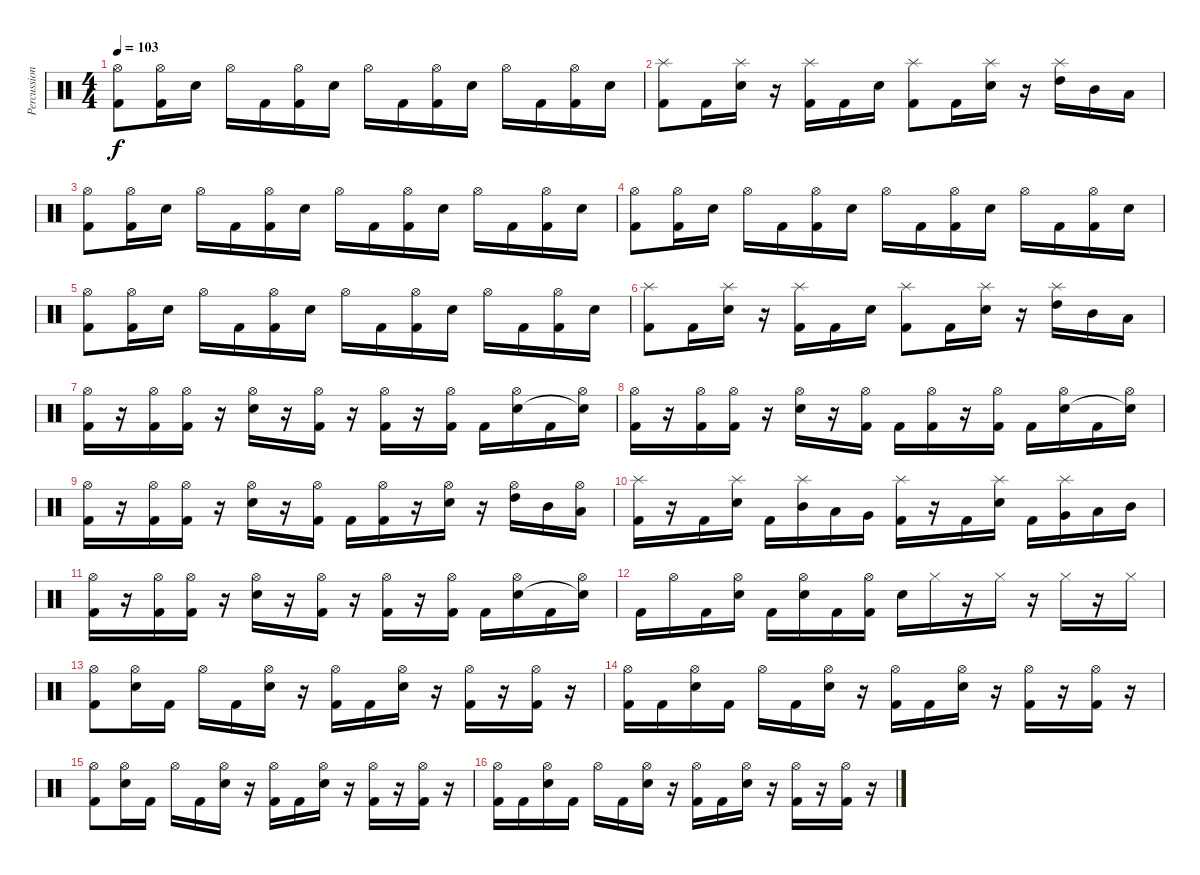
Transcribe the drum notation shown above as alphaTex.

\track ("Percussion" "Percussion") {instrument percussion}
\staff {score}
\articulation defaults
\ts (4 4)
\tempo 103
\clef neutral
\ks c
("Hi-Hat (open)" "Kick (hit) 2").8{dy f} ("Hi-Hat (open)" "Kick (hit) 2").16 "Electric Snare (hit)".16 "Hi-Hat (open)".16 "Kick (hit) 2".16 ("Hi-Hat (open)" "Kick (hit) 2").16 "Electric Snare (hit)".16 "Hi-Hat (open)".16 "Kick (hit) 2".16 ("Hi-Hat (open)" "Kick (hit) 2").16 "Electric Snare (hit)".16 "Hi-Hat (open)".16 "Kick (hit) 2".16 ("Hi-Hat (open)" "Kick (hit) 2").16 "Electric Snare (hit)".16 |
("Splash (hit)" "Kick (hit) 2").8 "Kick (hit) 2".16 ("Splash (hit)" "Electric Snare (hit)").16 r.16 ("Splash (hit)" "Kick (hit) 2").16 "Kick (hit) 2".16 "Electric Snare (hit)".16 ("Splash (hit)" "Kick (hit) 2").8 "Kick (hit) 2".16 ("Splash (hit)" "Electric Snare (hit)").16 r.16 ("Splash (hit)" "High Tom (hit)").16 "Mid Tom (hit)".16 "Low Tom (hit)".16 |
("Hi-Hat (open)" "Kick (hit) 2").8 ("Hi-Hat (open)" "Kick (hit) 2").16 "Electric Snare (hit)".16 "Hi-Hat (open)".16 "Kick (hit) 2".16 ("Hi-Hat (open)" "Kick (hit) 2").16 "Electric Snare (hit)".16 "Hi-Hat (open)".16 "Kick (hit) 2".16 ("Hi-Hat (open)" "Kick (hit) 2").16 "Electric Snare (hit)".16 "Hi-Hat (open)".16 "Kick (hit) 2".16 ("Hi-Hat (open)" "Kick (hit) 2").16 "Electric Snare (hit)".16 |
("Hi-Hat (open)" "Kick (hit) 2").8 ("Hi-Hat (open)" "Kick (hit) 2").16 "Electric Snare (hit)".16 "Hi-Hat (open)".16 "Kick (hit) 2".16 ("Hi-Hat (open)" "Kick (hit) 2").16 "Electric Snare (hit)".16 "Hi-Hat (open)".16 "Kick (hit) 2".16 ("Hi-Hat (open)" "Kick (hit) 2").16 "Electric Snare (hit)".16 "Hi-Hat (open)".16 "Kick (hit) 2".16 ("Hi-Hat (open)" "Kick (hit) 2").16 "Electric Snare (hit)".16 |
("Hi-Hat (open)" "Kick (hit) 2").8 ("Hi-Hat (open)" "Kick (hit) 2").16 "Electric Snare (hit)".16 "Hi-Hat (open)".16 "Kick (hit) 2".16 ("Hi-Hat (open)" "Kick (hit) 2").16 "Electric Snare (hit)".16 "Hi-Hat (open)".16 "Kick (hit) 2".16 ("Hi-Hat (open)" "Kick (hit) 2").16 "Electric Snare (hit)".16 "Hi-Hat (open)".16 "Kick (hit) 2".16 ("Hi-Hat (open)" "Kick (hit) 2").16 "Electric Snare (hit)".16 |
("Splash (hit)" "Kick (hit) 2").8 "Kick (hit) 2".16 ("Splash (hit)" "Electric Snare (hit)").16 r.16 ("Splash (hit)" "Kick (hit) 2").16 "Kick (hit) 2".16 "Electric Snare (hit)".16 ("Splash (hit)" "Kick (hit) 2").8 "Kick (hit) 2".16 ("Splash (hit)" "Electric Snare (hit)").16 r.16 ("Splash (hit)" "High Tom (hit)").16 "Mid Tom (hit)".16 "Low Tom (hit)".16 |
("Hi-Hat (open)" "Kick (hit) 2").16 r.16 ("Hi-Hat (open)" "Kick (hit) 2").16 ("Hi-Hat (open)" "Kick (hit) 2").16 r.16 ("Hi-Hat (open)" "Electric Snare (hit)").16 r.16 ("Hi-Hat (open)" "Kick (hit) 2").16 r.16 ("Hi-Hat (open)" "Kick (hit) 2").16 r.16 ("Hi-Hat (open)" "Kick (hit) 2").16 "Kick (hit) 2".16 ("Hi-Hat (open)" "Electric Snare (hit)").16 "Kick (hit) 2".16 ("Hi-Hat (open)" "Snare (hit)"{t}).16 |
("Hi-Hat (open)" "Kick (hit) 2").16 r.16 ("Hi-Hat (open)" "Kick (hit) 2").16 ("Hi-Hat (open)" "Kick (hit) 2").16 r.16 ("Hi-Hat (open)" "Electric Snare (hit)").16 r.16 ("Hi-Hat (open)" "Kick (hit) 2").16 "Kick (hit) 2".16 ("Hi-Hat (open)" "Kick (hit) 2").16 r.16 ("Hi-Hat (open)" "Kick (hit) 2").16 "Kick (hit) 2".16 ("Hi-Hat (open)" "Electric Snare (hit)").16 "Kick (hit) 2".16 ("Hi-Hat (open)" "Snare (hit)"{t}).16 |
("Hi-Hat (open)" "Kick (hit) 2").16 r.16 ("Hi-Hat (open)" "Kick (hit) 2").16 ("Hi-Hat (open)" "Kick (hit) 2").16 r.16 ("Hi-Hat (open)" "Electric Snare (hit)").16 r.16 ("Hi-Hat (open)" "Kick (hit) 2").16 "Kick (hit) 2".16 ("Hi-Hat (open)" "Kick (hit) 2").16 r.16 ("Hi-Hat (open)" "Electric Snare (hit)").16 r.16 ("Hi-Hat (open)" "High Tom (hit)").16 "Mid Tom (hit)".16 ("Hi-Hat (open)" "Low Tom (hit)").16 |
("Splash (hit)" "Kick (hit) 2").16 r.16 "Kick (hit) 2".16 ("Splash (hit)" "Electric Snare (hit)").16 "Kick (hit) 2".16 ("Splash (hit)" "Mid Tom (hit)").16 "Low Tom (hit)".16 "Very Low Tom (hit)".16 ("Splash (hit)" "Kick (hit) 2").16 r.16 "Kick (hit) 2".16 ("Splash (hit)" "Electric Snare (hit)").16 "Kick (hit) 2".16 ("Splash (hit)" "Very Low Tom (hit)").16 "Low Tom (hit)".16 "Mid Tom (hit)".16 |
("Hi-Hat (open)" "Kick (hit) 2").16 r.16 ("Hi-Hat (open)" "Kick (hit) 2").16 ("Hi-Hat (open)" "Kick (hit) 2").16 r.16 ("Hi-Hat (open)" "Electric Snare (hit)").16 r.16 ("Hi-Hat (open)" "Kick (hit) 2").16 r.16 ("Hi-Hat (open)" "Kick (hit) 2").16 r.16 ("Hi-Hat (open)" "Kick (hit) 2").16 "Kick (hit) 2".16 ("Hi-Hat (open)" "Electric Snare (hit)").16 "Kick (hit) 2".16 ("Hi-Hat (open)" "Snare (hit)"{t}).16 |
"Kick (hit) 2".16 "Hi-Hat (open)".16 "Kick (hit) 2".16 ("Hi-Hat (open)" "Electric Snare (hit)").16 "Kick (hit) 2".16 ("Hi-Hat (open)" "Electric Snare (hit)").16 "Kick (hit) 2".16 ("Hi-Hat (open)" "Kick (hit) 2").16 "Electric Snare (hit)".16 "Hi-Hat (closed)".16 r.16 "Hi-Hat (closed)".16 r.16 "Hi-Hat (closed)".16 r.16 "Hi-Hat (closed)".16 |
("Hi-Hat (open)" "Kick (hit) 2").8 ("Hi-Hat (open)" "Electric Snare (hit)").16 "Kick (hit) 2".16 "Hi-Hat (open)".16 "Kick (hit) 2".16 ("Hi-Hat (open)" "Electric Snare (hit)").16 r.16 ("Hi-Hat (open)" "Kick (hit) 2").16 "Kick (hit) 2".16 ("Hi-Hat (open)" "Electric Snare (hit)").16 r.16 ("Hi-Hat (open)" "Kick (hit) 2").16 r.16 ("Hi-Hat (open)" "Kick (hit) 2").16 r.16 |
("Hi-Hat (open)" "Kick (hit) 2").16 "Kick (hit) 2".16 ("Hi-Hat (open)" "Electric Snare (hit)").16 "Kick (hit) 2".16 "Hi-Hat (open)".16 "Kick (hit) 2".16 ("Hi-Hat (open)" "Electric Snare (hit)").16 r.16 ("Hi-Hat (open)" "Kick (hit) 2").16 "Kick (hit) 2".16 ("Hi-Hat (open)" "Electric Snare (hit)").16 r.16 ("Hi-Hat (open)" "Kick (hit) 2").16 r.16 ("Hi-Hat (open)" "Kick (hit) 2").16 r.16 |
("Hi-Hat (open)" "Kick (hit) 2").8 ("Hi-Hat (open)" "Electric Snare (hit)").16 "Kick (hit) 2".16 "Hi-Hat (open)".16 "Kick (hit) 2".16 ("Hi-Hat (open)" "Electric Snare (hit)").16 r.16 ("Hi-Hat (open)" "Kick (hit) 2").16 "Kick (hit) 2".16 ("Hi-Hat (open)" "Electric Snare (hit)").16 r.16 ("Hi-Hat (open)" "Kick (hit) 2").16 r.16 ("Hi-Hat (open)" "Kick (hit) 2").16 r.16 |
("Hi-Hat (open)" "Kick (hit) 2").16 "Kick (hit) 2".16 ("Hi-Hat (open)" "Electric Snare (hit)").16 "Kick (hit) 2".16 "Hi-Hat (open)".16 "Kick (hit) 2".16 ("Hi-Hat (open)" "Electric Snare (hit)").16 r.16 ("Hi-Hat (open)" "Kick (hit) 2").16 "Kick (hit) 2".16 ("Hi-Hat (open)" "Electric Snare (hit)").16 r.16 ("Hi-Hat (open)" "Kick (hit) 2").16 r.16 ("Hi-Hat (open)" "Kick (hit) 2").16 r.16
